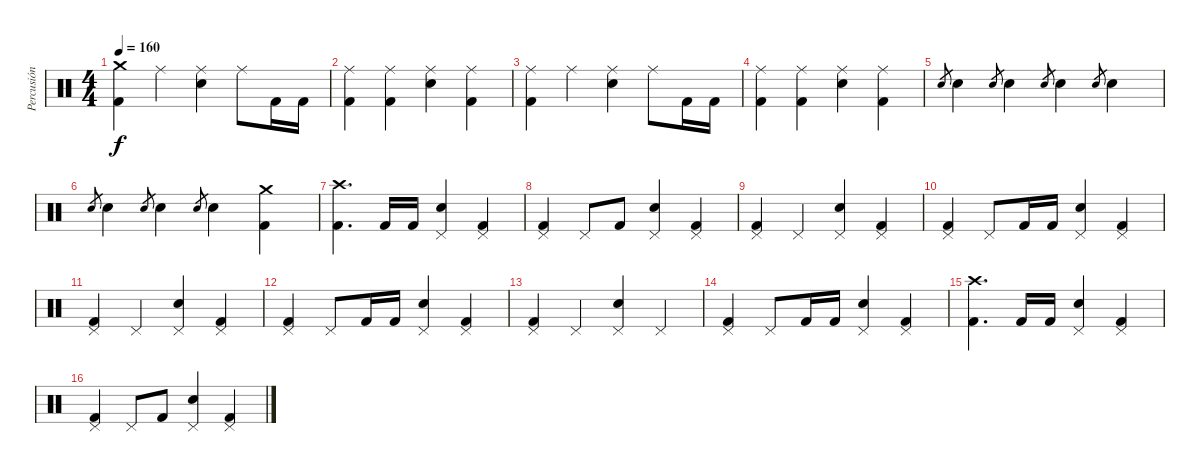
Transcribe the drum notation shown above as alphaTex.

\track ("Percusión" "Percusión") {instrument percussion}
\staff {score}
\articulation defaults
\ts (4 4)
\tempo 160
\clef neutral
\ks c
("Kick (hit) 2" "Crash medium (hit)").4{dy f} "Ride (middle)".4 ("Snare (hit) 2" "Ride (middle)").4 "Ride (middle)".8 "Kick (hit) 2".16 "Kick (hit) 2".16 |
("Ride (middle)" "Kick (hit) 2").4 ("Ride (middle)" "Kick (hit) 2").4 ("Ride (middle)" "Snare (hit) 2").4 ("Ride (middle)" "Kick (hit) 2").4 |
("Kick (hit) 2" "Ride (middle)").4 "Ride (middle)".4 ("Snare (hit) 2" "Ride (middle)").4 "Ride (middle)".8 "Kick (hit) 2".16 "Kick (hit) 2".16 |
("Ride (middle)" "Kick (hit) 2").4 ("Ride (middle)" "Kick (hit) 2").4 ("Ride (middle)" "Snare (hit) 2").4 ("Ride (middle)" "Kick (hit) 2").4 |
"Snare (hit) 2".8{gr} "Snare (hit) 2".4 "Snare (hit) 2".8{gr} "Snare (hit) 2".4 "Snare (hit) 2".8{gr} "Snare (hit) 2".4 "Snare (hit) 2".8{gr} "Snare (hit) 2".4 |
"Snare (hit) 2".8{gr} "Snare (hit) 2".4 "Snare (hit) 2".8{gr} "Snare (hit) 2".4 "Snare (hit) 2".8{gr} "Snare (hit) 2".4 ("Crash medium (hit)" "Kick (hit) 2").4 |
("Crash high (hit)" "Kick (hit) 2").4{d} "Kick (hit) 2".16 "Kick (hit) 2".16 ("Pedal Hi-Hat (hit)" "Snare (hit) 2").4 ("Pedal Hi-Hat (hit)" "Kick (hit) 2").4 |
("Pedal Hi-Hat (hit)" "Kick (hit) 2").4 "Pedal Hi-Hat (hit)".8 "Kick (hit) 2".8 ("Pedal Hi-Hat (hit)" "Snare (hit) 2").4 ("Pedal Hi-Hat (hit)" "Kick (hit) 2").4 |
("Pedal Hi-Hat (hit)" "Kick (hit) 2").4 "Pedal Hi-Hat (hit)".4 ("Pedal Hi-Hat (hit)" "Snare (hit) 2").4 ("Pedal Hi-Hat (hit)" "Kick (hit) 2").4 |
("Pedal Hi-Hat (hit)" "Kick (hit) 2").4 "Pedal Hi-Hat (hit)".8 "Kick (hit) 2".16 "Kick (hit) 2".16 ("Pedal Hi-Hat (hit)" "Snare (hit) 2").4 ("Pedal Hi-Hat (hit)" "Kick (hit) 2").4 |
("Pedal Hi-Hat (hit)" "Kick (hit) 2").4 "Pedal Hi-Hat (hit)".4 ("Pedal Hi-Hat (hit)" "Snare (hit) 2").4 ("Pedal Hi-Hat (hit)" "Kick (hit) 2").4 |
("Pedal Hi-Hat (hit)" "Kick (hit) 2").4 "Pedal Hi-Hat (hit)".8 "Kick (hit) 2".16 "Kick (hit) 2".16 ("Pedal Hi-Hat (hit)" "Snare (hit) 2").4 ("Pedal Hi-Hat (hit)" "Kick (hit) 2").4 |
("Pedal Hi-Hat (hit)" "Kick (hit) 2").4 "Pedal Hi-Hat (hit)".4 ("Pedal Hi-Hat (hit)" "Snare (hit) 2").4 "Pedal Hi-Hat (hit)".4 |
("Pedal Hi-Hat (hit)" "Kick (hit) 2").4 "Pedal Hi-Hat (hit)".8 "Kick (hit) 2".16 "Kick (hit) 2".16 ("Pedal Hi-Hat (hit)" "Snare (hit) 2").4 ("Pedal Hi-Hat (hit)" "Kick (hit) 2").4 |
("Crash high (hit)" "Kick (hit) 2").4{d} "Kick (hit) 2".16 "Kick (hit) 2".16 ("Pedal Hi-Hat (hit)" "Snare (hit) 2").4 ("Pedal Hi-Hat (hit)" "Kick (hit) 2").4 |
("Pedal Hi-Hat (hit)" "Kick (hit) 2").4 "Pedal Hi-Hat (hit)".8 "Kick (hit) 2".8 ("Pedal Hi-Hat (hit)" "Snare (hit) 2").4 ("Pedal Hi-Hat (hit)" "Kick (hit) 2").4
